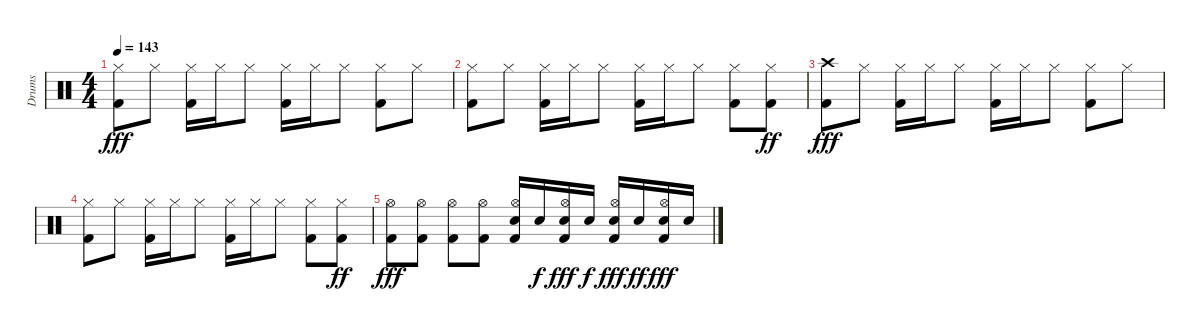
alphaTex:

\track ("Drums" "Drums") {instrument percussion}
\staff {score}
\articulation defaults
\ts (4 4)
\tempo 143
\clef neutral
\ks aminor
("Kick (hit) 2" "Hi-Hat (closed)").8{dy fff} "Hi-Hat (closed)".8 ("Kick (hit) 2" "Hi-Hat (closed)").16 "Hi-Hat (closed)".16 "Hi-Hat (closed)".8 ("Kick (hit) 2" "Hi-Hat (closed)").16 "Hi-Hat (closed)".16 "Hi-Hat (closed)".8 ("Kick (hit) 2" "Hi-Hat (closed)").8 "Hi-Hat (closed)".8 |
("Kick (hit) 2" "Hi-Hat (closed)").8 "Hi-Hat (closed)".8 ("Kick (hit) 2" "Hi-Hat (closed)").16 "Hi-Hat (closed)".16 "Hi-Hat (closed)".8 ("Kick (hit) 2" "Hi-Hat (closed)").16 "Hi-Hat (closed)".16 "Hi-Hat (closed)".8 ("Kick (hit) 2" "Hi-Hat (closed)").8 ("Kick (hit) 2" "Hi-Hat (closed)").8{dy ff} |
("Kick (hit) 2" "Crash high (hit)").8{dy fff} "Hi-Hat (closed)".8 ("Kick (hit) 2" "Hi-Hat (closed)").16 "Hi-Hat (closed)".16 "Hi-Hat (closed)".8 ("Kick (hit) 2" "Hi-Hat (closed)").16 "Hi-Hat (closed)".16 "Hi-Hat (closed)".8 ("Kick (hit) 2" "Hi-Hat (closed)").8 "Hi-Hat (closed)".8 |
("Kick (hit) 2" "Hi-Hat (closed)").8 "Hi-Hat (closed)".8 ("Kick (hit) 2" "Hi-Hat (closed)").16 "Hi-Hat (closed)".16 "Hi-Hat (closed)".8 ("Kick (hit) 2" "Hi-Hat (closed)").16 "Hi-Hat (closed)".16 "Hi-Hat (closed)".8 ("Kick (hit) 2" "Hi-Hat (closed)").8 ("Kick (hit) 2" "Hi-Hat (closed)").8{dy ff} |
("Kick (hit) 2" "Hi-Hat (open)").8{dy fff} ("Kick (hit) 2" "Hi-Hat (open)").8 ("Kick (hit) 2" "Hi-Hat (open)").8 ("Kick (hit) 2" "Hi-Hat (open)").8 ("Kick (hit) 2" "Snare (hit) 2" "Hi-Hat (open)").16 "Snare (hit) 2".16{dy f} ("Kick (hit) 2" "Snare (hit) 2" "Hi-Hat (open)").16{dy fff} "Snare (hit) 2".16{dy f} ("Kick (hit) 2" "Snare (hit) 2" "Hi-Hat (open)").16{dy fff} "Snare (hit) 2".16{dy ff} ("Kick (hit) 2" "Snare (hit) 2" "Hi-Hat (open)").16{dy fff} "Snare (hit) 2".16
